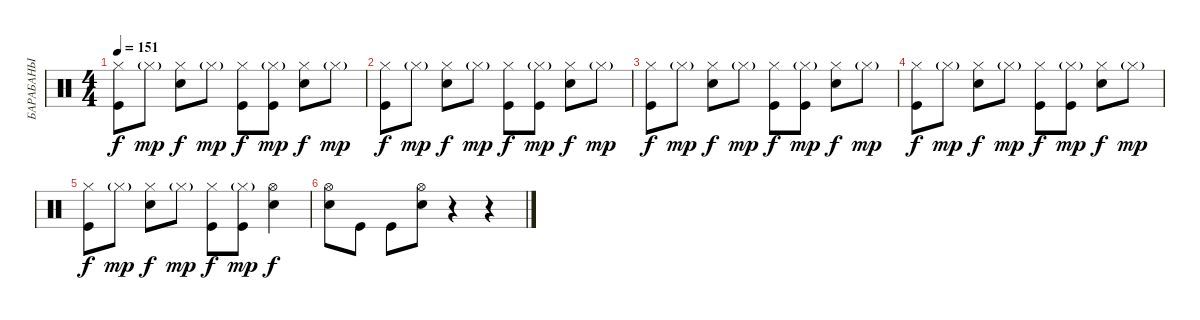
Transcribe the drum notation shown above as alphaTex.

\track ("БАРАБАНЫ" "БАРАБАНЫ") {instrument percussion}
\staff {score}
\articulation defaults
\ts (4 4)
\tempo 151
\clef neutral
\ks c
("Hi-Hat (closed)" "Kick (hit)").8{dy f} "Hi-Hat (closed)"{g}.8{dy mp} ("Hi-Hat (closed)" "Electric Snare (hit)").8{dy f} "Hi-Hat (closed)"{g}.8{dy mp} ("Hi-Hat (closed)" "Kick (hit)").8{dy f} ("Hi-Hat (closed)"{g} "Kick (hit)").8{dy mp} ("Hi-Hat (closed)" "Electric Snare (hit)").8{dy f} "Hi-Hat (closed)"{g}.8{dy mp} |
("Hi-Hat (closed)" "Kick (hit)").8{dy f} "Hi-Hat (closed)"{g}.8{dy mp} ("Hi-Hat (closed)" "Electric Snare (hit)").8{dy f} "Hi-Hat (closed)"{g}.8{dy mp} ("Hi-Hat (closed)" "Kick (hit)").8{dy f} ("Hi-Hat (closed)"{g} "Kick (hit)").8{dy mp} ("Hi-Hat (closed)" "Electric Snare (hit)").8{dy f} "Hi-Hat (closed)"{g}.8{dy mp} |
("Hi-Hat (closed)" "Kick (hit)").8{dy f} "Hi-Hat (closed)"{g}.8{dy mp} ("Hi-Hat (closed)" "Electric Snare (hit)").8{dy f} "Hi-Hat (closed)"{g}.8{dy mp} ("Hi-Hat (closed)" "Kick (hit)").8{dy f} ("Hi-Hat (closed)"{g} "Kick (hit)").8{dy mp} ("Hi-Hat (closed)" "Electric Snare (hit)").8{dy f} "Hi-Hat (closed)"{g}.8{dy mp} |
("Hi-Hat (closed)" "Kick (hit)").8{dy f} "Hi-Hat (closed)"{g}.8{dy mp} ("Hi-Hat (closed)" "Electric Snare (hit)").8{dy f} "Hi-Hat (closed)"{g}.8{dy mp} ("Hi-Hat (closed)" "Kick (hit)").8{dy f} ("Hi-Hat (closed)"{g} "Kick (hit)").8{dy mp} ("Hi-Hat (closed)" "Electric Snare (hit)").8{dy f} "Hi-Hat (closed)"{g}.8{dy mp} |
("Hi-Hat (closed)" "Kick (hit)").8{dy f} "Hi-Hat (closed)"{g}.8{dy mp} ("Hi-Hat (closed)" "Electric Snare (hit)").8{dy f} "Hi-Hat (closed)"{g}.8{dy mp} ("Hi-Hat (closed)" "Kick (hit)").8{dy f} ("Hi-Hat (closed)"{g} "Kick (hit)").8{dy mp} ("Hi-Hat (open)" "Electric Snare (hit)").4{dy f} |
("Hi-Hat (open)" "Electric Snare (hit)").8 "Kick (hit)".8 "Kick (hit)".8 ("Hi-Hat (open)" "Electric Snare (hit)").8 r.4 r.4
